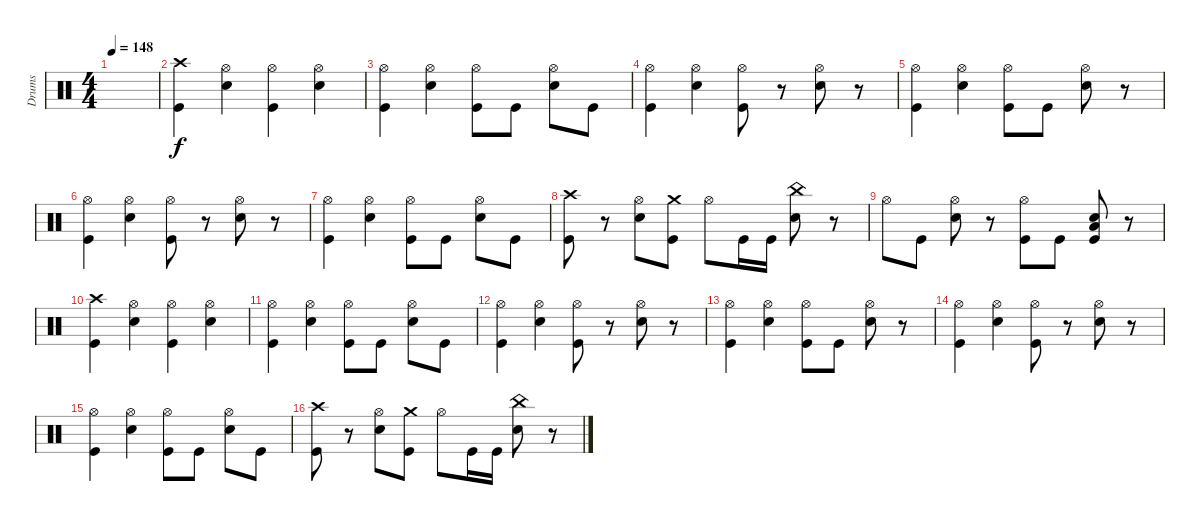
\track ("Drums" "Drums") {instrument percussion}
\staff {score}
\articulation defaults
\ts (4 4)
\tempo 148
\clef neutral
\ks c
|
("Crash high (hit)" "Kick (hit)").4 ("Snare (hit) 2" "Hi-Hat (open)").4 ("Kick (hit)" "Hi-Hat (open)").4 ("Snare (hit) 2" "Hi-Hat (open)").4 |
("Hi-Hat (open)" "Kick (hit)").4 ("Snare (hit) 2" "Hi-Hat (open)").4 ("Kick (hit)" "Hi-Hat (open)").8 "Kick (hit)".8 ("Snare (hit) 2" "Hi-Hat (open)").8 "Kick (hit)".8 |
("Hi-Hat (open)" "Kick (hit)").4 ("Snare (hit) 2" "Hi-Hat (open)").4 ("Kick (hit)" "Hi-Hat (open)").8 r.8 ("Snare (hit) 2" "Hi-Hat (open)").8 r.8 |
("Hi-Hat (open)" "Kick (hit)").4 ("Snare (hit) 2" "Hi-Hat (open)").4 ("Kick (hit)" "Hi-Hat (open)").8 "Kick (hit)".8 ("Snare (hit) 2" "Hi-Hat (open)").8 r.8 |
("Hi-Hat (open)" "Kick (hit)").4 ("Snare (hit) 2" "Hi-Hat (open)").4 ("Kick (hit)" "Hi-Hat (open)").8 r.8 ("Snare (hit) 2" "Hi-Hat (open)").8 r.8 |
("Hi-Hat (open)" "Kick (hit)").4 ("Snare (hit) 2" "Hi-Hat (open)").4 ("Kick (hit)" "Hi-Hat (open)").8 "Kick (hit)".8 ("Snare (hit) 2" "Hi-Hat (open)").8 "Kick (hit)".8 |
("Kick (hit)" "Crash high (hit)").8 r.8 ("Snare (hit) 2" "Hi-Hat (open)").8 ("Kick (hit)" "Crash medium (hit)").8 "Hi-Hat (open)".8 "Kick (hit)".16 "Kick (hit)".16 ("Snare (hit) 2" "China (hit)").8 r.8 |
"Hi-Hat (open)".8 "Kick (hit)".8 ("Snare (hit) 2" "Hi-Hat (open)").8 r.8 ("Kick (hit)" "Hi-Hat (open)").8 "Kick (hit)".8 ("Snare (hit) 2" "Low Floor Tom (hit)" "Kick (hit)").8 r.8 |
("Crash high (hit)" "Kick (hit)").4 ("Snare (hit) 2" "Hi-Hat (open)").4 ("Kick (hit)" "Hi-Hat (open)").4 ("Snare (hit) 2" "Hi-Hat (open)").4 |
("Hi-Hat (open)" "Kick (hit)").4 ("Snare (hit) 2" "Hi-Hat (open)").4 ("Kick (hit)" "Hi-Hat (open)").8 "Kick (hit)".8 ("Snare (hit) 2" "Hi-Hat (open)").8 "Kick (hit)".8 |
("Hi-Hat (open)" "Kick (hit)").4 ("Snare (hit) 2" "Hi-Hat (open)").4 ("Kick (hit)" "Hi-Hat (open)").8 r.8 ("Snare (hit) 2" "Hi-Hat (open)").8 r.8 |
("Hi-Hat (open)" "Kick (hit)").4 ("Snare (hit) 2" "Hi-Hat (open)").4 ("Kick (hit)" "Hi-Hat (open)").8 "Kick (hit)".8 ("Snare (hit) 2" "Hi-Hat (open)").8 r.8 |
("Hi-Hat (open)" "Kick (hit)").4 ("Snare (hit) 2" "Hi-Hat (open)").4 ("Kick (hit)" "Hi-Hat (open)").8 r.8 ("Snare (hit) 2" "Hi-Hat (open)").8 r.8 |
("Hi-Hat (open)" "Kick (hit)").4 ("Snare (hit) 2" "Hi-Hat (open)").4 ("Kick (hit)" "Hi-Hat (open)").8 "Kick (hit)".8 ("Snare (hit) 2" "Hi-Hat (open)").8 "Kick (hit)".8 |
("Kick (hit)" "Crash high (hit)").8 r.8 ("Snare (hit) 2" "Hi-Hat (open)").8 ("Kick (hit)" "Crash medium (hit)").8 "Hi-Hat (open)".8 "Kick (hit)".16 "Kick (hit)".16 ("Snare (hit) 2" "China (hit)").8 r.8
